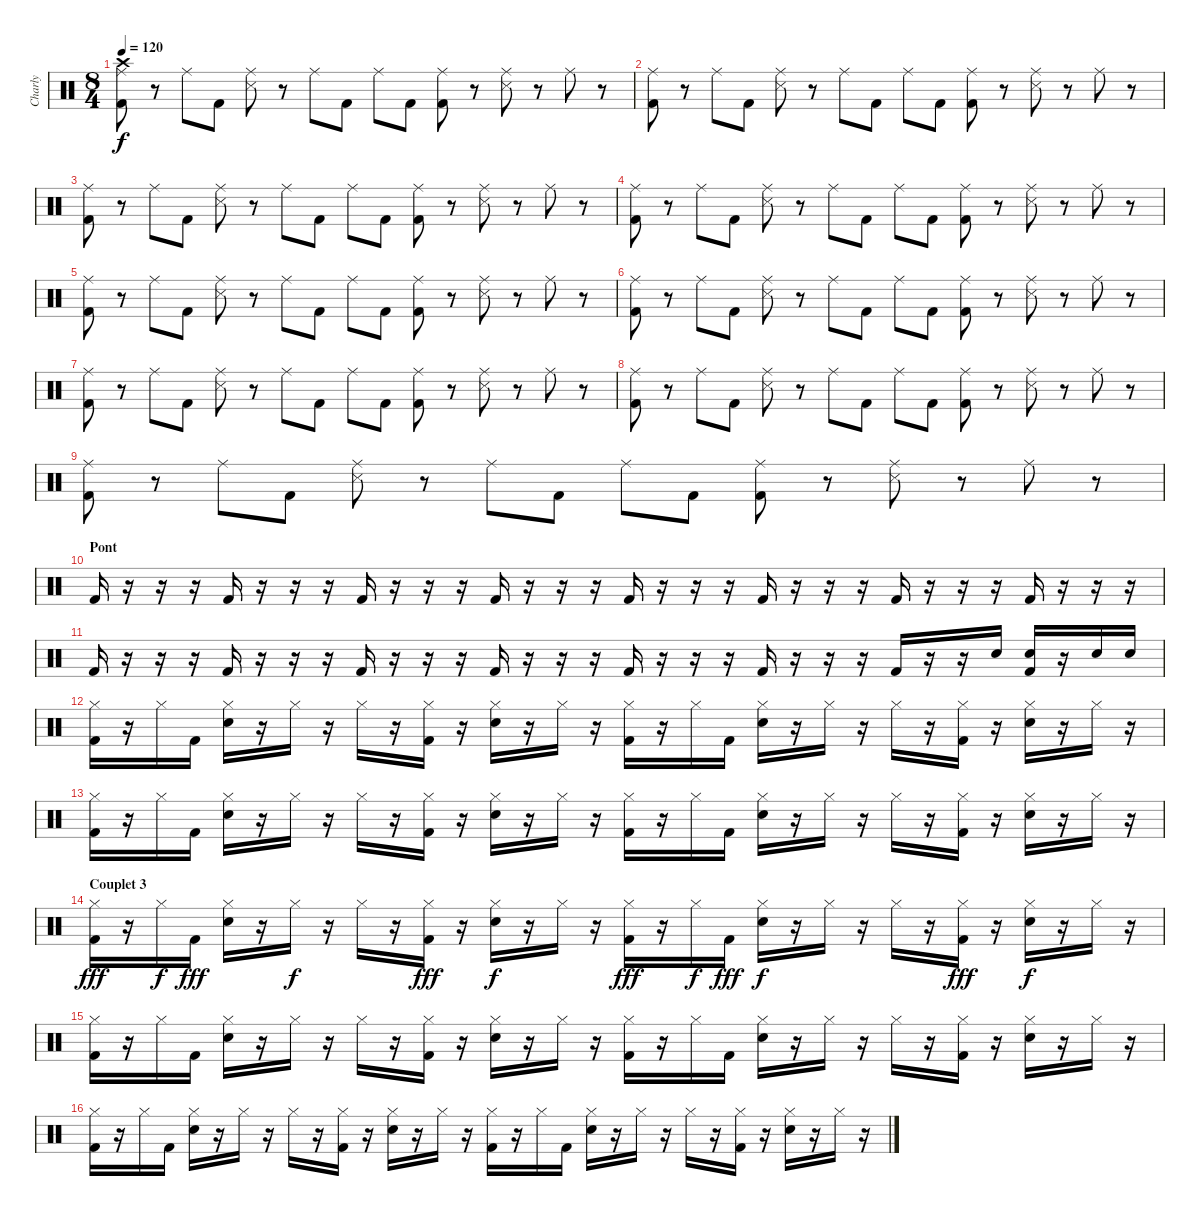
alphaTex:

\track ("Charly" "Charly") {instrument percussion}
\staff {score}
\articulation defaults
\ts (8 4)
\tempo 120
\clef neutral
\ks c
("Ride (middle)" "Crash high (hit)" "Kick (hit) 2").8{dy f} r.8 "Ride (middle)".8 "Kick (hit) 2".8 ("Ride (middle)" "Snare (side stick) 3").8 r.8 "Ride (middle)".8 "Kick (hit) 2".8 "Ride (middle)".8 "Kick (hit) 2".8 ("Ride (middle)" "Kick (hit) 2").8 r.8 ("Ride (middle)" "Snare (side stick) 3").8 r.8 "Ride (middle)".8 r.8 |
("Ride (middle)" "Kick (hit) 2").8 r.8 "Ride (middle)".8 "Kick (hit) 2".8 ("Ride (middle)" "Snare (side stick) 3").8 r.8 "Ride (middle)".8 "Kick (hit) 2".8 "Ride (middle)".8 "Kick (hit) 2".8 ("Ride (middle)" "Kick (hit) 2").8 r.8 ("Ride (middle)" "Snare (side stick) 3").8 r.8 "Ride (middle)".8 r.8 |
("Ride (middle)" "Kick (hit) 2").8 r.8 "Ride (middle)".8 "Kick (hit) 2".8 ("Ride (middle)" "Snare (side stick) 3").8 r.8 "Ride (middle)".8 "Kick (hit) 2".8 "Ride (middle)".8 "Kick (hit) 2".8 ("Ride (middle)" "Kick (hit) 2").8 r.8 ("Ride (middle)" "Snare (side stick) 3").8 r.8 "Ride (middle)".8 r.8 |
("Ride (middle)" "Kick (hit) 2").8 r.8 "Ride (middle)".8 "Kick (hit) 2".8 ("Ride (middle)" "Snare (side stick) 3").8 r.8 "Ride (middle)".8 "Kick (hit) 2".8 "Ride (middle)".8 "Kick (hit) 2".8 ("Ride (middle)" "Kick (hit) 2").8 r.8 ("Ride (middle)" "Snare (side stick) 3").8 r.8 "Ride (middle)".8 r.8 |
("Ride (middle)" "Kick (hit) 2").8 r.8 "Ride (middle)".8 "Kick (hit) 2".8 ("Ride (middle)" "Snare (side stick) 3").8 r.8 "Ride (middle)".8 "Kick (hit) 2".8 "Ride (middle)".8 "Kick (hit) 2".8 ("Ride (middle)" "Kick (hit) 2").8 r.8 ("Ride (middle)" "Snare (side stick) 3").8 r.8 "Ride (middle)".8 r.8 |
("Ride (middle)" "Kick (hit) 2").8 r.8 "Ride (middle)".8 "Kick (hit) 2".8 ("Ride (middle)" "Snare (side stick) 3").8 r.8 "Ride (middle)".8 "Kick (hit) 2".8 "Ride (middle)".8 "Kick (hit) 2".8 ("Ride (middle)" "Kick (hit) 2").8 r.8 ("Ride (middle)" "Snare (side stick) 3").8 r.8 "Ride (middle)".8 r.8 |
("Ride (middle)" "Kick (hit) 2").8 r.8 "Ride (middle)".8 "Kick (hit) 2".8 ("Ride (middle)" "Snare (side stick) 3").8 r.8 "Ride (middle)".8 "Kick (hit) 2".8 "Ride (middle)".8 "Kick (hit) 2".8 ("Ride (middle)" "Kick (hit) 2").8 r.8 ("Ride (middle)" "Snare (side stick) 3").8 r.8 "Ride (middle)".8 r.8 |
("Ride (middle)" "Kick (hit) 2").8 r.8 "Ride (middle)".8 "Kick (hit) 2".8 ("Ride (middle)" "Snare (side stick) 3").8 r.8 "Ride (middle)".8 "Kick (hit) 2".8 "Ride (middle)".8 "Kick (hit) 2".8 ("Ride (middle)" "Kick (hit) 2").8 r.8 ("Ride (middle)" "Snare (side stick) 3").8 r.8 "Ride (middle)".8 r.8 |
("Ride (middle)" "Kick (hit) 2").8 r.8 "Ride (middle)".8 "Kick (hit) 2".8 ("Ride (middle)" "Snare (side stick) 3").8 r.8 "Ride (middle)".8 "Kick (hit) 2".8 "Ride (middle)".8 "Kick (hit) 2".8 ("Ride (middle)" "Kick (hit) 2").8 r.8 ("Ride (middle)" "Snare (side stick) 3").8 r.8 "Ride (middle)".8 r.8 |
\section ("" "Pont")
"Kick (hit) 2".16 r.16 r.16 r.16 "Kick (hit) 2".16 r.16 r.16 r.16 "Kick (hit) 2".16 r.16 r.16 r.16 "Kick (hit) 2".16 r.16 r.16 r.16 "Kick (hit) 2".16 r.16 r.16 r.16 "Kick (hit) 2".16 r.16 r.16 r.16 "Kick (hit) 2".16 r.16 r.16 r.16 "Kick (hit) 2".16 r.16 r.16 r.16 |
"Kick (hit) 2".16 r.16 r.16 r.16 "Kick (hit) 2".16 r.16 r.16 r.16 "Kick (hit) 2".16 r.16 r.16 r.16 "Kick (hit) 2".16 r.16 r.16 r.16 "Kick (hit) 2".16 r.16 r.16 r.16 "Kick (hit) 2".16 r.16 r.16 r.16 "Kick (hit) 2".16 r.16 r.16 "Snare (hit) 2".16 ("Snare (hit) 2" "Kick (hit) 2").16 r.16 "Snare (hit) 2".16 "Snare (hit) 2".16 |
("Hi-Hat (closed)" "Kick (hit) 2").16 r.16 "Hi-Hat (closed)".16 "Kick (hit) 2".16 ("Hi-Hat (closed)" "Snare (hit) 2").16 r.16 "Hi-Hat (closed)".16 r.16 "Hi-Hat (closed)".16 r.16 ("Hi-Hat (closed)" "Kick (hit) 2").16 r.16 ("Hi-Hat (closed)" "Snare (hit) 2").16 r.16 "Hi-Hat (closed)".16 r.16 ("Hi-Hat (closed)" "Kick (hit) 2").16 r.16 "Hi-Hat (closed)".16 "Kick (hit) 2".16 ("Hi-Hat (closed)" "Snare (hit) 2").16 r.16 "Hi-Hat (closed)".16 r.16 "Hi-Hat (closed)".16 r.16 ("Hi-Hat (closed)" "Kick (hit) 2").16 r.16 ("Hi-Hat (closed)" "Snare (hit) 2").16 r.16 "Hi-Hat (closed)".16 r.16 |
("Hi-Hat (closed)" "Kick (hit) 2").16 r.16 "Hi-Hat (closed)".16 "Kick (hit) 2".16 ("Hi-Hat (closed)" "Snare (hit) 2").16 r.16 "Hi-Hat (closed)".16 r.16 "Hi-Hat (closed)".16 r.16 ("Hi-Hat (closed)" "Kick (hit) 2").16 r.16 ("Hi-Hat (closed)" "Snare (hit) 2").16 r.16 "Hi-Hat (closed)".16 r.16 ("Hi-Hat (closed)" "Kick (hit) 2").16 r.16 "Hi-Hat (closed)".16 "Kick (hit) 2".16 ("Hi-Hat (closed)" "Snare (hit) 2").16 r.16 "Hi-Hat (closed)".16 r.16 "Hi-Hat (closed)".16 r.16 ("Hi-Hat (closed)" "Kick (hit) 2").16 r.16 ("Hi-Hat (closed)" "Snare (hit) 2").16 r.16 "Hi-Hat (closed)".16 r.16 |
\section ("" "Couplet 3")
("Hi-Hat (closed)" "Kick (hit) 2").16{dy fff} r.16 "Hi-Hat (closed)".16{dy f} "Kick (hit) 2".16{dy fff} ("Hi-Hat (closed)" "Snare (hit) 2").16 r.16 "Hi-Hat (closed)".16{dy f} r.16 "Hi-Hat (closed)".16 r.16 ("Hi-Hat (closed)" "Kick (hit) 2").16{dy fff} r.16 ("Hi-Hat (closed)" "Snare (hit) 2").16{dy f} r.16 "Hi-Hat (closed)".16 r.16 ("Hi-Hat (closed)" "Kick (hit) 2").16{dy fff} r.16 "Hi-Hat (closed)".16{dy f} "Kick (hit) 2".16{dy fff} ("Hi-Hat (closed)" "Snare (hit) 2").16{dy f} r.16 "Hi-Hat (closed)".16 r.16 "Hi-Hat (closed)".16 r.16 ("Hi-Hat (closed)" "Kick (hit) 2").16{dy fff} r.16 ("Hi-Hat (closed)" "Snare (hit) 2").16{dy f} r.16 "Hi-Hat (closed)".16 r.16 |
("Hi-Hat (closed)" "Kick (hit) 2").16 r.16 "Hi-Hat (closed)".16 "Kick (hit) 2".16 ("Hi-Hat (closed)" "Snare (hit) 2").16 r.16 "Hi-Hat (closed)".16 r.16 "Hi-Hat (closed)".16 r.16 ("Hi-Hat (closed)" "Kick (hit) 2").16 r.16 ("Hi-Hat (closed)" "Snare (hit) 2").16 r.16 "Hi-Hat (closed)".16 r.16 ("Hi-Hat (closed)" "Kick (hit) 2").16 r.16 "Hi-Hat (closed)".16 "Kick (hit) 2".16 ("Hi-Hat (closed)" "Snare (hit) 2").16 r.16 "Hi-Hat (closed)".16 r.16 "Hi-Hat (closed)".16 r.16 ("Hi-Hat (closed)" "Kick (hit) 2").16 r.16 ("Hi-Hat (closed)" "Snare (hit) 2").16 r.16 "Hi-Hat (closed)".16 r.16 |
("Hi-Hat (closed)" "Kick (hit) 2").16 r.16 "Hi-Hat (closed)".16 "Kick (hit) 2".16 ("Hi-Hat (closed)" "Snare (hit) 2").16 r.16 "Hi-Hat (closed)".16 r.16 "Hi-Hat (closed)".16 r.16 ("Hi-Hat (closed)" "Kick (hit) 2").16 r.16 ("Hi-Hat (closed)" "Snare (hit) 2").16 r.16 "Hi-Hat (closed)".16 r.16 ("Hi-Hat (closed)" "Kick (hit) 2").16 r.16 "Hi-Hat (closed)".16 "Kick (hit) 2".16 ("Hi-Hat (closed)" "Snare (hit) 2").16 r.16 "Hi-Hat (closed)".16 r.16 "Hi-Hat (closed)".16 r.16 ("Hi-Hat (closed)" "Kick (hit) 2").16 r.16 ("Hi-Hat (closed)" "Snare (hit) 2").16 r.16 "Hi-Hat (closed)".16 r.16
